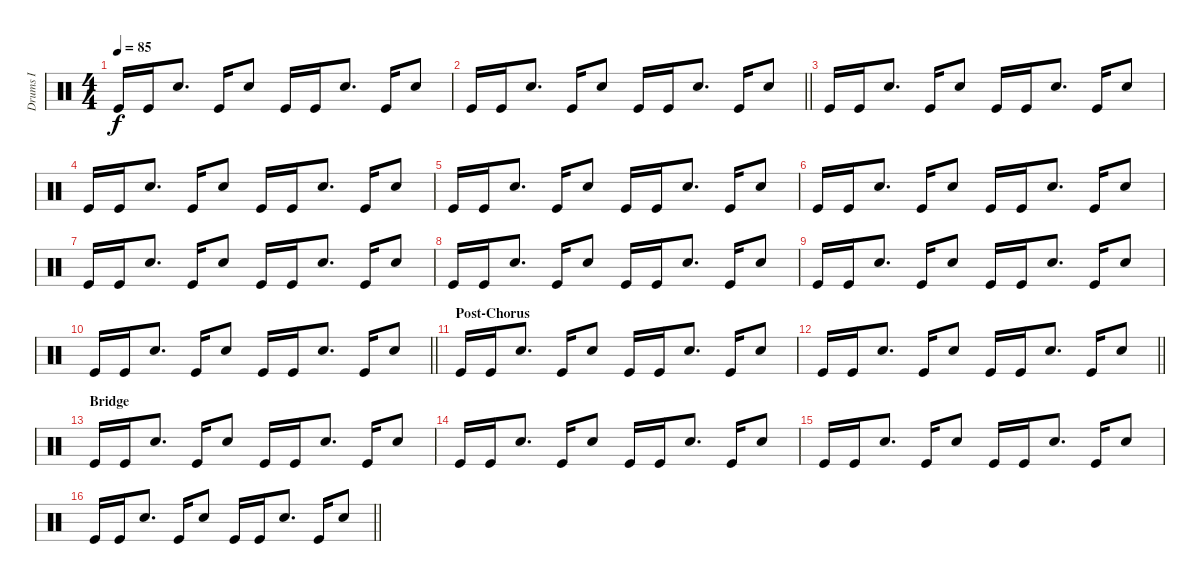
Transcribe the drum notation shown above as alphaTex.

\track ("Drums I" "Drums I") {instrument percussion}
\staff {score}
\articulation defaults
\ts (4 4)
\tempo 85
\clef neutral
\ks c "Kick (hit)".16{dy f} "Kick (hit)".16 "Electric Snare (hit)".8{d} "Kick (hit)".16 "Electric Snare (hit)".8 "Kick (hit)".16 "Kick (hit)".16 "Electric Snare (hit)".8{d} "Kick (hit)".16 "Electric Snare (hit)".8
|
\barLineRight lightlight "Kick (hit)".16 "Kick (hit)".16 "Electric Snare (hit)".8{d} "Kick (hit)".16 "Electric Snare (hit)".8 "Kick (hit)".16 "Kick (hit)".16 "Electric Snare (hit)".8{d} "Kick (hit)".16 "Electric Snare (hit)".8
|
"Kick (hit)".16 "Kick (hit)".16 "Electric Snare (hit)".8{d} "Kick (hit)".16 "Electric Snare (hit)".8 "Kick (hit)".16 "Kick (hit)".16 "Electric Snare (hit)".8{d} "Kick (hit)".16 "Electric Snare (hit)".8 |
"Kick (hit)".16 "Kick (hit)".16 "Electric Snare (hit)".8{d} "Kick (hit)".16 "Electric Snare (hit)".8 "Kick (hit)".16 "Kick (hit)".16 "Electric Snare (hit)".8{d} "Kick (hit)".16 "Electric Snare (hit)".8 |
"Kick (hit)".16 "Kick (hit)".16 "Electric Snare (hit)".8{d} "Kick (hit)".16 "Electric Snare (hit)".8 "Kick (hit)".16 "Kick (hit)".16 "Electric Snare (hit)".8{d} "Kick (hit)".16 "Electric Snare (hit)".8 |
"Kick (hit)".16 "Kick (hit)".16 "Electric Snare (hit)".8{d} "Kick (hit)".16 "Electric Snare (hit)".8 "Kick (hit)".16 "Kick (hit)".16 "Electric Snare (hit)".8{d} "Kick (hit)".16 "Electric Snare (hit)".8 |
"Kick (hit)".16 "Kick (hit)".16 "Electric Snare (hit)".8{d} "Kick (hit)".16 "Electric Snare (hit)".8 "Kick (hit)".16 "Kick (hit)".16 "Electric Snare (hit)".8{d} "Kick (hit)".16 "Electric Snare (hit)".8 |
"Kick (hit)".16 "Kick (hit)".16 "Electric Snare (hit)".8{d} "Kick (hit)".16 "Electric Snare (hit)".8 "Kick (hit)".16 "Kick (hit)".16 "Electric Snare (hit)".8{d} "Kick (hit)".16 "Electric Snare (hit)".8 |
"Kick (hit)".16 "Kick (hit)".16 "Electric Snare (hit)".8{d} "Kick (hit)".16 "Electric Snare (hit)".8 "Kick (hit)".16 "Kick (hit)".16 "Electric Snare (hit)".8{d} "Kick (hit)".16 "Electric Snare (hit)".8 |
\barLineRight lightlight "Kick (hit)".16 "Kick (hit)".16 "Electric Snare (hit)".8{d} "Kick (hit)".16 "Electric Snare (hit)".8 "Kick (hit)".16 "Kick (hit)".16 "Electric Snare (hit)".8{d} "Kick (hit)".16 "Electric Snare (hit)".8
|
\section ("" "Post-Chorus")
"Kick (hit)".16 "Kick (hit)".16 "Electric Snare (hit)".8{d} "Kick (hit)".16 "Electric Snare (hit)".8 "Kick (hit)".16 "Kick (hit)".16 "Electric Snare (hit)".8{d} "Kick (hit)".16 "Electric Snare (hit)".8 |
\barLineRight lightlight "Kick (hit)".16 "Kick (hit)".16 "Electric Snare (hit)".8{d} "Kick (hit)".16 "Electric Snare (hit)".8 "Kick (hit)".16 "Kick (hit)".16 "Electric Snare (hit)".8{d} "Kick (hit)".16 "Electric Snare (hit)".8
|
\section ("" "Bridge")
"Kick (hit)".16 "Kick (hit)".16 "Electric Snare (hit)".8{d} "Kick (hit)".16 "Electric Snare (hit)".8 "Kick (hit)".16 "Kick (hit)".16 "Electric Snare (hit)".8{d} "Kick (hit)".16 "Electric Snare (hit)".8 |
"Kick (hit)".16 "Kick (hit)".16 "Electric Snare (hit)".8{d} "Kick (hit)".16 "Electric Snare (hit)".8 "Kick (hit)".16 "Kick (hit)".16 "Electric Snare (hit)".8{d} "Kick (hit)".16 "Electric Snare (hit)".8 |
"Kick (hit)".16 "Kick (hit)".16 "Electric Snare (hit)".8{d} "Kick (hit)".16 "Electric Snare (hit)".8 "Kick (hit)".16 "Kick (hit)".16 "Electric Snare (hit)".8{d} "Kick (hit)".16 "Electric Snare (hit)".8 |
\barLineRight lightlight "Kick (hit)".16 "Kick (hit)".16 "Electric Snare (hit)".8{d} "Kick (hit)".16 "Electric Snare (hit)".8 "Kick (hit)".16 "Kick (hit)".16 "Electric Snare (hit)".8{d} "Kick (hit)".16 "Electric Snare (hit)".8
